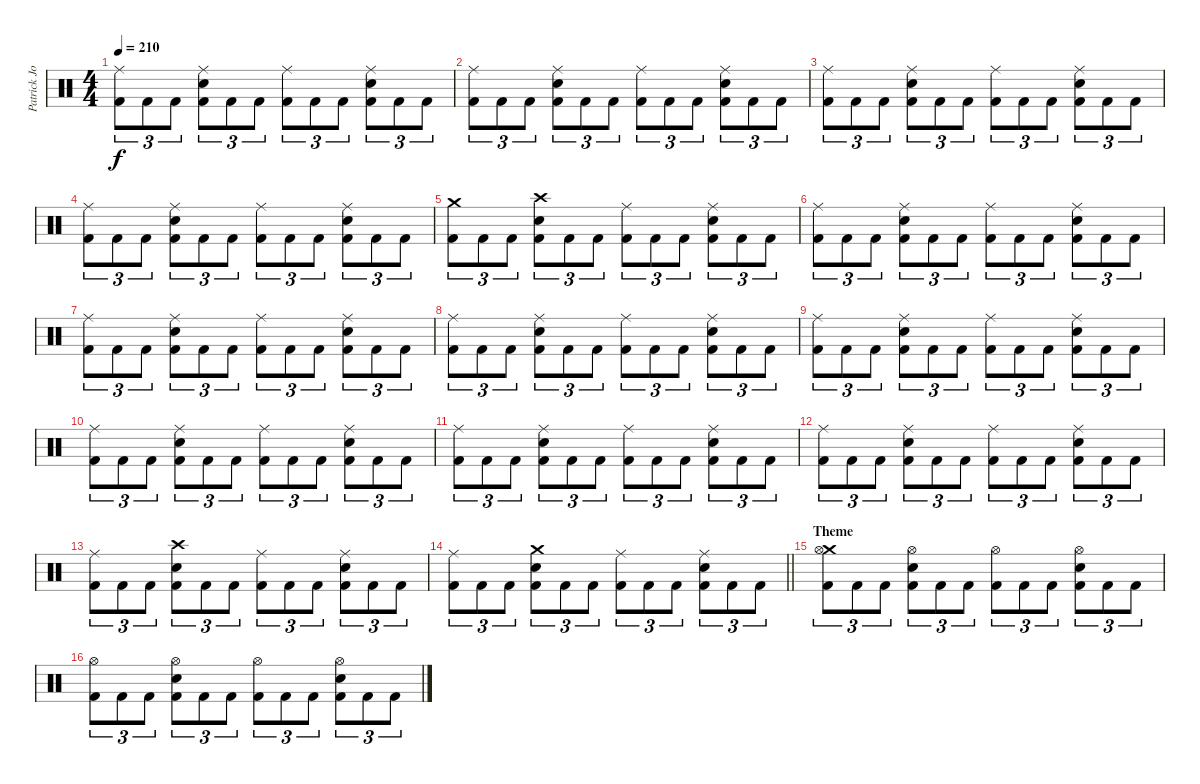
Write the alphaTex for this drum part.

\track ("Patrick Johansson" "Patrick Jo") {instrument percussion}
\staff {score}
\articulation defaults
\ts (4 4)
\tempo 210
\clef neutral
\ks c
("Ride (middle)" "Kick (hit) 2").8{tu (3 2) dy f} "Kick (hit) 2".8{tu (3 2)} "Kick (hit) 2".8{tu (3 2)} ("Ride (middle)" "Snare (hit) 2" "Kick (hit) 2").8{tu (3 2)} "Kick (hit) 2".8{tu (3 2)} "Kick (hit) 2".8{tu (3 2)} ("Ride (middle)" "Kick (hit) 2").8{tu (3 2)} "Kick (hit) 2".8{tu (3 2)} "Kick (hit) 2".8{tu (3 2)} ("Ride (middle)" "Snare (hit) 2" "Kick (hit) 2").8{tu (3 2)} "Kick (hit) 2".8{tu (3 2)} "Kick (hit) 2".8{tu (3 2)} |
("Ride (middle)" "Kick (hit) 2").8{tu (3 2)} "Kick (hit) 2".8{tu (3 2)} "Kick (hit) 2".8{tu (3 2)} ("Ride (middle)" "Snare (hit) 2" "Kick (hit) 2").8{tu (3 2)} "Kick (hit) 2".8{tu (3 2)} "Kick (hit) 2".8{tu (3 2)} ("Ride (middle)" "Kick (hit) 2").8{tu (3 2)} "Kick (hit) 2".8{tu (3 2)} "Kick (hit) 2".8{tu (3 2)} ("Ride (middle)" "Snare (hit) 2" "Kick (hit) 2").8{tu (3 2)} "Kick (hit) 2".8{tu (3 2)} "Kick (hit) 2".8{tu (3 2)} |
("Ride (middle)" "Kick (hit) 2").8{tu (3 2)} "Kick (hit) 2".8{tu (3 2)} "Kick (hit) 2".8{tu (3 2)} ("Ride (middle)" "Snare (hit) 2" "Kick (hit) 2").8{tu (3 2)} "Kick (hit) 2".8{tu (3 2)} "Kick (hit) 2".8{tu (3 2)} ("Ride (middle)" "Kick (hit) 2").8{tu (3 2)} "Kick (hit) 2".8{tu (3 2)} "Kick (hit) 2".8{tu (3 2)} ("Ride (middle)" "Snare (hit) 2" "Kick (hit) 2").8{tu (3 2)} "Kick (hit) 2".8{tu (3 2)} "Kick (hit) 2".8{tu (3 2)} |
("Ride (middle)" "Kick (hit) 2").8{tu (3 2)} "Kick (hit) 2".8{tu (3 2)} "Kick (hit) 2".8{tu (3 2)} ("Ride (middle)" "Snare (hit) 2" "Kick (hit) 2").8{tu (3 2)} "Kick (hit) 2".8{tu (3 2)} "Kick (hit) 2".8{tu (3 2)} ("Ride (middle)" "Kick (hit) 2").8{tu (3 2)} "Kick (hit) 2".8{tu (3 2)} "Kick (hit) 2".8{tu (3 2)} ("Ride (middle)" "Snare (hit) 2" "Kick (hit) 2").8{tu (3 2)} "Kick (hit) 2".8{tu (3 2)} "Kick (hit) 2".8{tu (3 2)} |
("Crash medium (hit)" "Kick (hit) 2").8{tu (3 2)} "Kick (hit) 2".8{tu (3 2)} "Kick (hit) 2".8{tu (3 2)} ("Crash high (hit)" "Snare (hit) 2" "Kick (hit) 2").8{tu (3 2)} "Kick (hit) 2".8{tu (3 2)} "Kick (hit) 2".8{tu (3 2)} ("Ride (middle)" "Kick (hit) 2").8{tu (3 2)} "Kick (hit) 2".8{tu (3 2)} "Kick (hit) 2".8{tu (3 2)} ("Ride (middle)" "Snare (hit) 2" "Kick (hit) 2").8{tu (3 2)} "Kick (hit) 2".8{tu (3 2)} "Kick (hit) 2".8{tu (3 2)} |
("Ride (middle)" "Kick (hit) 2").8{tu (3 2)} "Kick (hit) 2".8{tu (3 2)} "Kick (hit) 2".8{tu (3 2)} ("Ride (middle)" "Snare (hit) 2" "Kick (hit) 2").8{tu (3 2)} "Kick (hit) 2".8{tu (3 2)} "Kick (hit) 2".8{tu (3 2)} ("Ride (middle)" "Kick (hit) 2").8{tu (3 2)} "Kick (hit) 2".8{tu (3 2)} "Kick (hit) 2".8{tu (3 2)} ("Ride (middle)" "Snare (hit) 2" "Kick (hit) 2").8{tu (3 2)} "Kick (hit) 2".8{tu (3 2)} "Kick (hit) 2".8{tu (3 2)} |
("Ride (middle)" "Kick (hit) 2").8{tu (3 2)} "Kick (hit) 2".8{tu (3 2)} "Kick (hit) 2".8{tu (3 2)} ("Ride (middle)" "Snare (hit) 2" "Kick (hit) 2").8{tu (3 2)} "Kick (hit) 2".8{tu (3 2)} "Kick (hit) 2".8{tu (3 2)} ("Ride (middle)" "Kick (hit) 2").8{tu (3 2)} "Kick (hit) 2".8{tu (3 2)} "Kick (hit) 2".8{tu (3 2)} ("Ride (middle)" "Snare (hit) 2" "Kick (hit) 2").8{tu (3 2)} "Kick (hit) 2".8{tu (3 2)} "Kick (hit) 2".8{tu (3 2)} |
("Ride (middle)" "Kick (hit) 2").8{tu (3 2)} "Kick (hit) 2".8{tu (3 2)} "Kick (hit) 2".8{tu (3 2)} ("Ride (middle)" "Snare (hit) 2" "Kick (hit) 2").8{tu (3 2)} "Kick (hit) 2".8{tu (3 2)} "Kick (hit) 2".8{tu (3 2)} ("Ride (middle)" "Kick (hit) 2").8{tu (3 2)} "Kick (hit) 2".8{tu (3 2)} "Kick (hit) 2".8{tu (3 2)} ("Ride (middle)" "Snare (hit) 2" "Kick (hit) 2").8{tu (3 2)} "Kick (hit) 2".8{tu (3 2)} "Kick (hit) 2".8{tu (3 2)} |
("Ride (middle)" "Kick (hit) 2").8{tu (3 2)} "Kick (hit) 2".8{tu (3 2)} "Kick (hit) 2".8{tu (3 2)} ("Ride (middle)" "Snare (hit) 2" "Kick (hit) 2").8{tu (3 2)} "Kick (hit) 2".8{tu (3 2)} "Kick (hit) 2".8{tu (3 2)} ("Ride (middle)" "Kick (hit) 2").8{tu (3 2)} "Kick (hit) 2".8{tu (3 2)} "Kick (hit) 2".8{tu (3 2)} ("Ride (middle)" "Snare (hit) 2" "Kick (hit) 2").8{tu (3 2)} "Kick (hit) 2".8{tu (3 2)} "Kick (hit) 2".8{tu (3 2)} |
("Ride (middle)" "Kick (hit) 2").8{tu (3 2)} "Kick (hit) 2".8{tu (3 2)} "Kick (hit) 2".8{tu (3 2)} ("Ride (middle)" "Snare (hit) 2" "Kick (hit) 2").8{tu (3 2)} "Kick (hit) 2".8{tu (3 2)} "Kick (hit) 2".8{tu (3 2)} ("Ride (middle)" "Kick (hit) 2").8{tu (3 2)} "Kick (hit) 2".8{tu (3 2)} "Kick (hit) 2".8{tu (3 2)} ("Ride (middle)" "Snare (hit) 2" "Kick (hit) 2").8{tu (3 2)} "Kick (hit) 2".8{tu (3 2)} "Kick (hit) 2".8{tu (3 2)} |
("Ride (middle)" "Kick (hit) 2").8{tu (3 2)} "Kick (hit) 2".8{tu (3 2)} "Kick (hit) 2".8{tu (3 2)} ("Ride (middle)" "Snare (hit) 2" "Kick (hit) 2").8{tu (3 2)} "Kick (hit) 2".8{tu (3 2)} "Kick (hit) 2".8{tu (3 2)} ("Ride (middle)" "Kick (hit) 2").8{tu (3 2)} "Kick (hit) 2".8{tu (3 2)} "Kick (hit) 2".8{tu (3 2)} ("Ride (middle)" "Snare (hit) 2" "Kick (hit) 2").8{tu (3 2)} "Kick (hit) 2".8{tu (3 2)} "Kick (hit) 2".8{tu (3 2)} |
("Ride (middle)" "Kick (hit) 2").8{tu (3 2)} "Kick (hit) 2".8{tu (3 2)} "Kick (hit) 2".8{tu (3 2)} ("Ride (middle)" "Snare (hit) 2" "Kick (hit) 2").8{tu (3 2)} "Kick (hit) 2".8{tu (3 2)} "Kick (hit) 2".8{tu (3 2)} ("Ride (middle)" "Kick (hit) 2").8{tu (3 2)} "Kick (hit) 2".8{tu (3 2)} "Kick (hit) 2".8{tu (3 2)} ("Ride (middle)" "Snare (hit) 2" "Kick (hit) 2").8{tu (3 2)} "Kick (hit) 2".8{tu (3 2)} "Kick (hit) 2".8{tu (3 2)} |
("Ride (middle)" "Kick (hit) 2").8{tu (3 2)} "Kick (hit) 2".8{tu (3 2)} "Kick (hit) 2".8{tu (3 2)} ("Crash high (hit)" "Snare (hit) 2" "Kick (hit) 2").8{tu (3 2)} "Kick (hit) 2".8{tu (3 2)} "Kick (hit) 2".8{tu (3 2)} ("Ride (middle)" "Kick (hit) 2").8{tu (3 2)} "Kick (hit) 2".8{tu (3 2)} "Kick (hit) 2".8{tu (3 2)} ("Ride (middle)" "Snare (hit) 2" "Kick (hit) 2").8{tu (3 2)} "Kick (hit) 2".8{tu (3 2)} "Kick (hit) 2".8{tu (3 2)} |
\barLineRight lightlight
("Ride (middle)" "Kick (hit) 2").8{tu (3 2)} "Kick (hit) 2".8{tu (3 2)} "Kick (hit) 2".8{tu (3 2)} ("Crash medium (hit)" "Snare (hit) 2" "Kick (hit) 2").8{tu (3 2)} "Kick (hit) 2".8{tu (3 2)} "Kick (hit) 2".8{tu (3 2)} ("Ride (middle)" "Kick (hit) 2").8{tu (3 2)} "Kick (hit) 2".8{tu (3 2)} "Kick (hit) 2".8{tu (3 2)} ("Ride (middle)" "Snare (hit) 2" "Kick (hit) 2").8{tu (3 2)} "Kick (hit) 2".8{tu (3 2)} "Kick (hit) 2".8{tu (3 2)} |
\section ("" "Theme")
("Crash medium (hit)" "Hi-Hat (open)" "Kick (hit) 2").8{tu (3 2)} "Kick (hit) 2".8{tu (3 2)} "Kick (hit) 2".8{tu (3 2)} ("Hi-Hat (open)" "Snare (hit) 2" "Kick (hit) 2").8{tu (3 2)} "Kick (hit) 2".8{tu (3 2)} "Kick (hit) 2".8{tu (3 2)} ("Hi-Hat (open)" "Kick (hit) 2").8{tu (3 2)} "Kick (hit) 2".8{tu (3 2)} "Kick (hit) 2".8{tu (3 2)} ("Hi-Hat (open)" "Snare (hit) 2" "Kick (hit) 2").8{tu (3 2)} "Kick (hit) 2".8{tu (3 2)} "Kick (hit) 2".8{tu (3 2)} |
("Hi-Hat (open)" "Kick (hit) 2").8{tu (3 2)} "Kick (hit) 2".8{tu (3 2)} "Kick (hit) 2".8{tu (3 2)} ("Hi-Hat (open)" "Snare (hit) 2" "Kick (hit) 2").8{tu (3 2)} "Kick (hit) 2".8{tu (3 2)} "Kick (hit) 2".8{tu (3 2)} ("Hi-Hat (open)" "Kick (hit) 2").8{tu (3 2)} "Kick (hit) 2".8{tu (3 2)} "Kick (hit) 2".8{tu (3 2)} ("Hi-Hat (open)" "Snare (hit) 2" "Kick (hit) 2").8{tu (3 2)} "Kick (hit) 2".8{tu (3 2)} "Kick (hit) 2".8{tu (3 2)}
